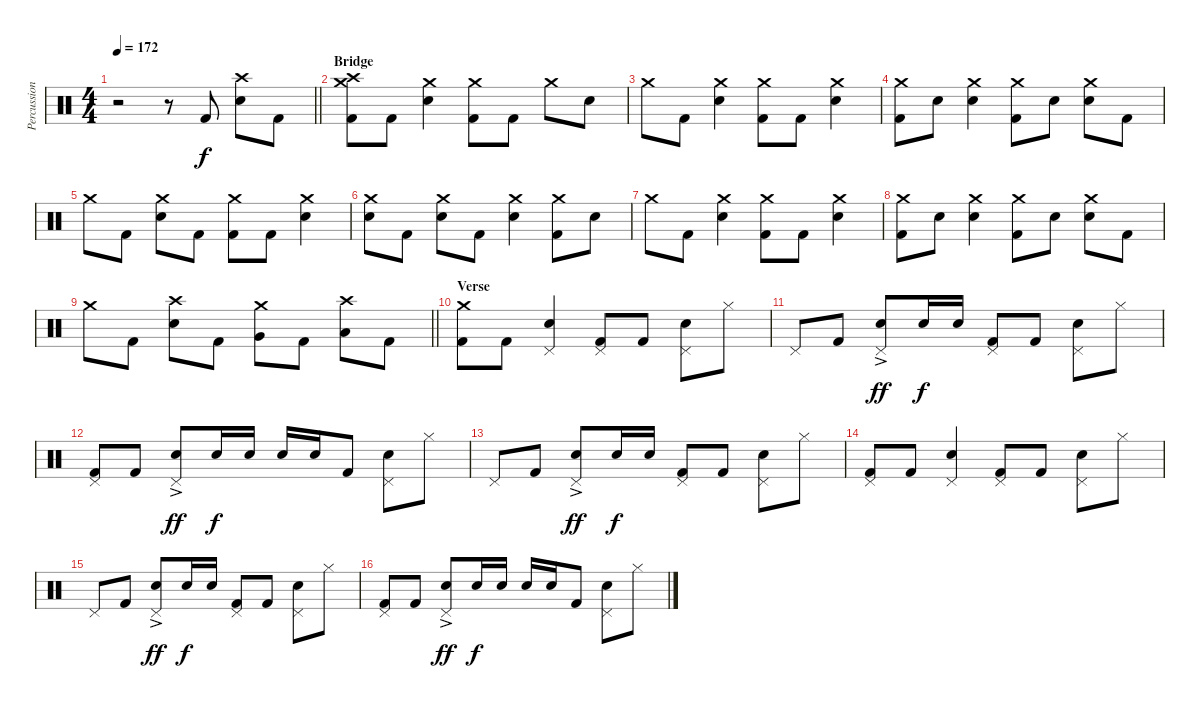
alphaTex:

\track ("Percussion" "Percussion") {instrument percussion}
\staff {score}
\articulation defaults
\ts (4 4)
\tempo 172
\clef neutral
\barLineRight lightlight
\ks aminor
r.2{dy f} r.8 "Kick (hit) 2".8{volume 14} ("Crash high (hit)" "Electric Snare (hit)").8 "Kick (hit) 2".8 |
\section ("" "Bridge")
("Crash medium (hit)" "Crash high (hit)" "Kick (hit) 2").8 "Kick (hit) 2".8 ("Crash medium (hit)" "Electric Snare (hit)").4 ("Crash medium (hit)" "Kick (hit) 2").8 "Kick (hit) 2".8 "Crash medium (hit)".8 "Electric Snare (hit)".8 |
"Crash medium (hit)".8 "Kick (hit) 2".8 ("Crash medium (hit)" "Electric Snare (hit)").4 ("Crash medium (hit)" "Kick (hit) 2").8 "Kick (hit) 2".8 ("Crash medium (hit)" "Electric Snare (hit)").4 |
("Crash medium (hit)" "Kick (hit) 2").8 "Electric Snare (hit)".8 ("Crash medium (hit)" "Electric Snare (hit)").4 ("Crash medium (hit)" "Kick (hit) 2").8 "Electric Snare (hit)".8 ("Crash medium (hit)" "Electric Snare (hit)").8 "Kick (hit) 2".8 |
"Crash medium (hit)".8 "Kick (hit) 2".8 ("Crash medium (hit)" "Electric Snare (hit)").8 "Kick (hit) 2".8 ("Crash medium (hit)" "Kick (hit) 2").8 "Kick (hit) 2".8 ("Crash medium (hit)" "Electric Snare (hit)").4 |
("Crash medium (hit)" "Electric Snare (hit)").8 "Kick (hit) 2".8 ("Crash medium (hit)" "Electric Snare (hit)").8 "Kick (hit) 2".8 ("Crash medium (hit)" "Electric Snare (hit)").4 ("Crash medium (hit)" "Kick (hit) 2").8 "Electric Snare (hit)".8 |
"Crash medium (hit)".8 "Kick (hit) 2".8 ("Crash medium (hit)" "Electric Snare (hit)").4 ("Crash medium (hit)" "Kick (hit) 2").8 "Kick (hit) 2".8 ("Crash medium (hit)" "Electric Snare (hit)").4 |
("Crash medium (hit)" "Kick (hit) 2").8 "Electric Snare (hit)".8 ("Crash medium (hit)" "Electric Snare (hit)").4 ("Crash medium (hit)" "Kick (hit) 2").8 "Electric Snare (hit)".8 ("Crash medium (hit)" "Electric Snare (hit)").8 "Kick (hit) 2".8 |
\barLineRight lightlight "Crash medium (hit)".8 "Kick (hit) 2".8
("Crash high (hit)" "Electric Snare (hit)").8 "Kick (hit) 2".8 ("Crash medium (hit)" "Very Low Tom (hit)").8 "Kick (hit) 2".8 ("Crash high (hit)" "Low Floor Tom (hit)").8 "Kick (hit) 2".8 |
\section ("" "Verse")
("Crash medium (hit)" "Kick (hit) 2").8{volume 12} "Kick (hit) 2".8 ("Pedal Hi-Hat (hit)" "Electric Snare (hit)").4 ("Pedal Hi-Hat (hit)" "Kick (hit) 2").8 "Kick (hit) 2".8 ("Pedal Hi-Hat (hit)" "Electric Snare (hit)").8 "Hi-Hat (closed)".8 |
"Pedal Hi-Hat (hit)".8 "Kick (hit) 2".8 ("Pedal Hi-Hat (hit)" "Electric Snare (hit)"{ac}).8{dy ff} "Electric Snare (hit)".16{dy f} "Electric Snare (hit)".16 ("Pedal Hi-Hat (hit)" "Kick (hit) 2").8 "Kick (hit) 2".8 ("Pedal Hi-Hat (hit)" "Electric Snare (hit)").8 "Hi-Hat (closed)".8 |
("Pedal Hi-Hat (hit)" "Kick (hit) 2").8 "Kick (hit) 2".8 ("Pedal Hi-Hat (hit)" "Electric Snare (hit)"{ac}).8{dy ff} "Electric Snare (hit)".16{dy f} "Electric Snare (hit)".16 "Electric Snare (hit)".16 "Electric Snare (hit)".16 "Kick (hit) 2".8 ("Pedal Hi-Hat (hit)" "Electric Snare (hit)").8 "Hi-Hat (closed)".8 |
"Pedal Hi-Hat (hit)".8 "Kick (hit) 2".8 ("Pedal Hi-Hat (hit)" "Electric Snare (hit)"{ac}).8{dy ff} "Electric Snare (hit)".16{dy f} "Electric Snare (hit)".16 ("Pedal Hi-Hat (hit)" "Kick (hit) 2").8 "Kick (hit) 2".8 ("Pedal Hi-Hat (hit)" "Electric Snare (hit)").8 "Hi-Hat (closed)".8 |
("Pedal Hi-Hat (hit)" "Kick (hit) 2").8 "Kick (hit) 2".8 ("Pedal Hi-Hat (hit)" "Electric Snare (hit)").4 ("Pedal Hi-Hat (hit)" "Kick (hit) 2").8 "Kick (hit) 2".8 ("Pedal Hi-Hat (hit)" "Electric Snare (hit)").8 "Hi-Hat (closed)".8 |
"Pedal Hi-Hat (hit)".8 "Kick (hit) 2".8 ("Pedal Hi-Hat (hit)" "Electric Snare (hit)"{ac}).8{dy ff} "Electric Snare (hit)".16{dy f} "Electric Snare (hit)".16 ("Pedal Hi-Hat (hit)" "Kick (hit) 2").8 "Kick (hit) 2".8 ("Pedal Hi-Hat (hit)" "Electric Snare (hit)").8 "Hi-Hat (closed)".8 |
("Pedal Hi-Hat (hit)" "Kick (hit) 2").8 "Kick (hit) 2".8 ("Pedal Hi-Hat (hit)" "Electric Snare (hit)"{ac}).8{dy ff} "Electric Snare (hit)".16{dy f} "Electric Snare (hit)".16 "Electric Snare (hit)".16 "Electric Snare (hit)".16 "Kick (hit) 2".8 ("Pedal Hi-Hat (hit)" "Electric Snare (hit)").8 "Hi-Hat (closed)".8
